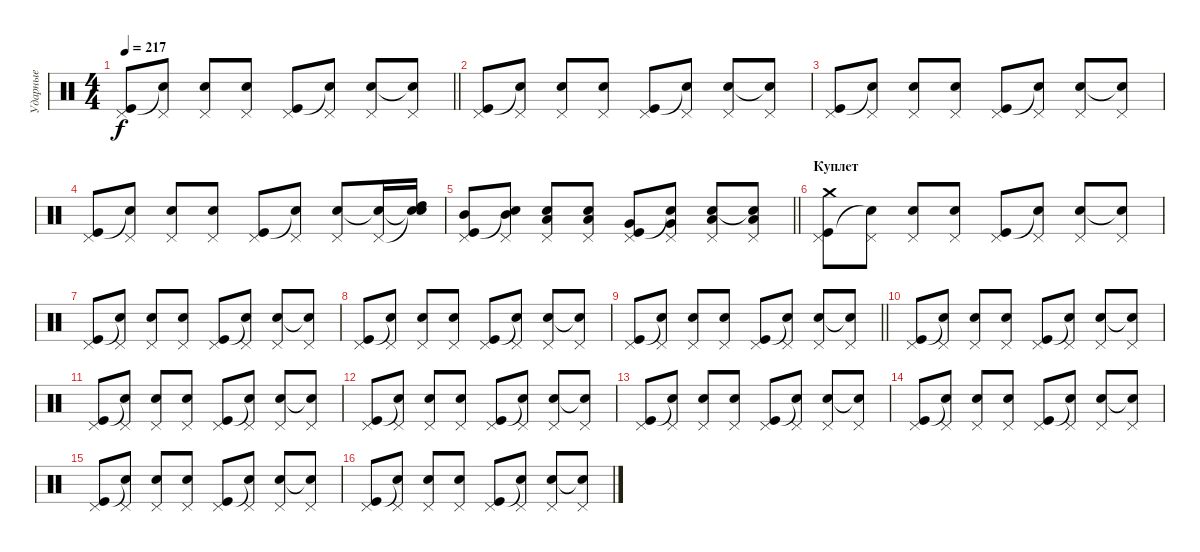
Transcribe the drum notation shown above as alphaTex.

\track ("Ударные" "Ударные") {instrument percussion}
\staff {score}
\articulation defaults
\ts (4 4)
\tempo 217
\clef neutral
\barLineRight lightlight
\ks c
("Pedal Hi-Hat (hit)" "Kick (hit)").8{dy f} ("Pedal Hi-Hat (hit)" "Snare (hit)"{t}).8 ("Pedal Hi-Hat (hit)" "Snare (hit) 2").8 ("Pedal Hi-Hat (hit)" "Snare (hit) 2").8 ("Pedal Hi-Hat (hit)" "Kick (hit)").8 ("Pedal Hi-Hat (hit)" "Snare (hit)"{t}).8 ("Pedal Hi-Hat (hit)" "Snare (hit) 2").8 ("Pedal Hi-Hat (hit)" "Snare (hit)"{t}).8 |
("Pedal Hi-Hat (hit)" "Kick (hit)").8 ("Pedal Hi-Hat (hit)" "Snare (hit)"{t}).8 ("Pedal Hi-Hat (hit)" "Snare (hit) 2").8 ("Pedal Hi-Hat (hit)" "Snare (hit) 2").8 ("Pedal Hi-Hat (hit)" "Kick (hit)").8 ("Pedal Hi-Hat (hit)" "Snare (hit)"{t}).8 ("Pedal Hi-Hat (hit)" "Snare (hit) 2").8 ("Pedal Hi-Hat (hit)" "Snare (hit)"{t}).8 |
("Pedal Hi-Hat (hit)" "Kick (hit)").8 ("Pedal Hi-Hat (hit)" "Snare (hit)"{t}).8 ("Pedal Hi-Hat (hit)" "Snare (hit) 2").8 ("Pedal Hi-Hat (hit)" "Snare (hit) 2").8 ("Pedal Hi-Hat (hit)" "Kick (hit)").8 ("Pedal Hi-Hat (hit)" "Snare (hit)"{t}).8 ("Pedal Hi-Hat (hit)" "Snare (hit) 2").8 ("Pedal Hi-Hat (hit)" "Snare (hit)"{t}).8 |
("Pedal Hi-Hat (hit)" "Kick (hit)").8 ("Pedal Hi-Hat (hit)" "Snare (hit)"{t}).8 ("Pedal Hi-Hat (hit)" "Snare (hit) 2").8 ("Pedal Hi-Hat (hit)" "Snare (hit) 2").8 ("Pedal Hi-Hat (hit)" "Kick (hit)").8 ("Pedal Hi-Hat (hit)" "Snare (hit)"{t}).8 ("Pedal Hi-Hat (hit)" "Snare (hit) 2").8 ("Pedal Hi-Hat (hit)" "Snare (hit)"{t}).16 ("Snare (hit)"{t} "Snare (hit)"{t} "High Tom (hit)").16 |
\barLineRight lightlight
("Pedal Hi-Hat (hit)" "Kick (hit)" "Mid Tom (hit)").8 ("Pedal Hi-Hat (hit)" "Snare (hit)"{t} "Mid Tom (hit)").8 ("Pedal Hi-Hat (hit)" "Snare (hit) 2" "Low Tom (hit)").8 ("Pedal Hi-Hat (hit)" "Snare (hit) 2" "Low Tom (hit)").8 ("Pedal Hi-Hat (hit)" "Kick (hit)" "Very Low Tom (hit)").8 ("Pedal Hi-Hat (hit)" "Snare (hit)"{t} "Very Low Tom (hit)").8 ("Pedal Hi-Hat (hit)" "Snare (hit) 2" "Low Floor Tom (hit)").8 ("Pedal Hi-Hat (hit)" "Snare (hit)"{t} "Low Floor Tom (hit)").8 |
\section ("" "Куплет")
("Pedal Hi-Hat (hit)" "Kick (hit)" "Crash medium (hit)").8 ("Pedal Hi-Hat (hit)" "Snare (hit)"{t}).8 ("Pedal Hi-Hat (hit)" "Snare (hit) 2").8 ("Pedal Hi-Hat (hit)" "Snare (hit) 2").8 ("Pedal Hi-Hat (hit)" "Kick (hit)").8 ("Pedal Hi-Hat (hit)" "Snare (hit)"{t}).8 ("Pedal Hi-Hat (hit)" "Snare (hit) 2").8 ("Pedal Hi-Hat (hit)" "Snare (hit)"{t}).8 |
("Pedal Hi-Hat (hit)" "Kick (hit)").8 ("Pedal Hi-Hat (hit)" "Snare (hit)"{t}).8 ("Pedal Hi-Hat (hit)" "Snare (hit) 2").8 ("Pedal Hi-Hat (hit)" "Snare (hit) 2").8 ("Pedal Hi-Hat (hit)" "Kick (hit)").8 ("Pedal Hi-Hat (hit)" "Snare (hit)"{t}).8 ("Pedal Hi-Hat (hit)" "Snare (hit) 2").8 ("Pedal Hi-Hat (hit)" "Snare (hit)"{t}).8 |
("Pedal Hi-Hat (hit)" "Kick (hit)").8 ("Pedal Hi-Hat (hit)" "Snare (hit)"{t}).8 ("Pedal Hi-Hat (hit)" "Snare (hit) 2").8 ("Pedal Hi-Hat (hit)" "Snare (hit) 2").8 ("Pedal Hi-Hat (hit)" "Kick (hit)").8 ("Pedal Hi-Hat (hit)" "Snare (hit)"{t}).8 ("Pedal Hi-Hat (hit)" "Snare (hit) 2").8 ("Pedal Hi-Hat (hit)" "Snare (hit)"{t}).8 |
\barLineRight lightlight
("Pedal Hi-Hat (hit)" "Kick (hit)").8 ("Pedal Hi-Hat (hit)" "Snare (hit)"{t}).8 ("Pedal Hi-Hat (hit)" "Snare (hit) 2").8 ("Pedal Hi-Hat (hit)" "Snare (hit) 2").8 ("Pedal Hi-Hat (hit)" "Kick (hit)").8 ("Pedal Hi-Hat (hit)" "Snare (hit)"{t}).8 ("Pedal Hi-Hat (hit)" "Snare (hit) 2").8 ("Pedal Hi-Hat (hit)" "Snare (hit)"{t}).8 |
("Pedal Hi-Hat (hit)" "Kick (hit)").8 ("Pedal Hi-Hat (hit)" "Snare (hit)"{t}).8 ("Pedal Hi-Hat (hit)" "Snare (hit) 2").8 ("Pedal Hi-Hat (hit)" "Snare (hit) 2").8 ("Pedal Hi-Hat (hit)" "Kick (hit)").8 ("Pedal Hi-Hat (hit)" "Snare (hit)"{t}).8 ("Pedal Hi-Hat (hit)" "Snare (hit) 2").8 ("Pedal Hi-Hat (hit)" "Snare (hit)"{t}).8 |
("Pedal Hi-Hat (hit)" "Kick (hit)").8 ("Pedal Hi-Hat (hit)" "Snare (hit)"{t}).8 ("Pedal Hi-Hat (hit)" "Snare (hit) 2").8 ("Pedal Hi-Hat (hit)" "Snare (hit) 2").8 ("Pedal Hi-Hat (hit)" "Kick (hit)").8 ("Pedal Hi-Hat (hit)" "Snare (hit)"{t}).8 ("Pedal Hi-Hat (hit)" "Snare (hit) 2").8 ("Pedal Hi-Hat (hit)" "Snare (hit)"{t}).8 |
("Pedal Hi-Hat (hit)" "Kick (hit)").8 ("Pedal Hi-Hat (hit)" "Snare (hit)"{t}).8 ("Pedal Hi-Hat (hit)" "Snare (hit) 2").8 ("Pedal Hi-Hat (hit)" "Snare (hit) 2").8 ("Pedal Hi-Hat (hit)" "Kick (hit)").8 ("Pedal Hi-Hat (hit)" "Snare (hit)"{t}).8 ("Pedal Hi-Hat (hit)" "Snare (hit) 2").8 ("Pedal Hi-Hat (hit)" "Snare (hit)"{t}).8 |
("Pedal Hi-Hat (hit)" "Kick (hit)").8 ("Pedal Hi-Hat (hit)" "Snare (hit)"{t}).8 ("Pedal Hi-Hat (hit)" "Snare (hit) 2").8 ("Pedal Hi-Hat (hit)" "Snare (hit) 2").8 ("Pedal Hi-Hat (hit)" "Kick (hit)").8 ("Pedal Hi-Hat (hit)" "Snare (hit)"{t}).8 ("Pedal Hi-Hat (hit)" "Snare (hit) 2").8 ("Pedal Hi-Hat (hit)" "Snare (hit)"{t}).8 |
("Pedal Hi-Hat (hit)" "Kick (hit)").8 ("Pedal Hi-Hat (hit)" "Snare (hit)"{t}).8 ("Pedal Hi-Hat (hit)" "Snare (hit) 2").8 ("Pedal Hi-Hat (hit)" "Snare (hit) 2").8 ("Pedal Hi-Hat (hit)" "Kick (hit)").8 ("Pedal Hi-Hat (hit)" "Snare (hit)"{t}).8 ("Pedal Hi-Hat (hit)" "Snare (hit) 2").8 ("Pedal Hi-Hat (hit)" "Snare (hit)"{t}).8 |
("Pedal Hi-Hat (hit)" "Kick (hit)").8 ("Pedal Hi-Hat (hit)" "Snare (hit)"{t}).8 ("Pedal Hi-Hat (hit)" "Snare (hit) 2").8 ("Pedal Hi-Hat (hit)" "Snare (hit) 2").8 ("Pedal Hi-Hat (hit)" "Kick (hit)").8 ("Pedal Hi-Hat (hit)" "Snare (hit)"{t}).8 ("Pedal Hi-Hat (hit)" "Snare (hit) 2").8 ("Pedal Hi-Hat (hit)" "Snare (hit)"{t}).8 |
("Pedal Hi-Hat (hit)" "Kick (hit)").8 ("Pedal Hi-Hat (hit)" "Snare (hit)"{t}).8 ("Pedal Hi-Hat (hit)" "Snare (hit) 2").8 ("Pedal Hi-Hat (hit)" "Snare (hit) 2").8 ("Pedal Hi-Hat (hit)" "Kick (hit)").8 ("Pedal Hi-Hat (hit)" "Snare (hit)"{t}).8 ("Pedal Hi-Hat (hit)" "Snare (hit) 2").8 ("Pedal Hi-Hat (hit)" "Snare (hit)"{t}).8
